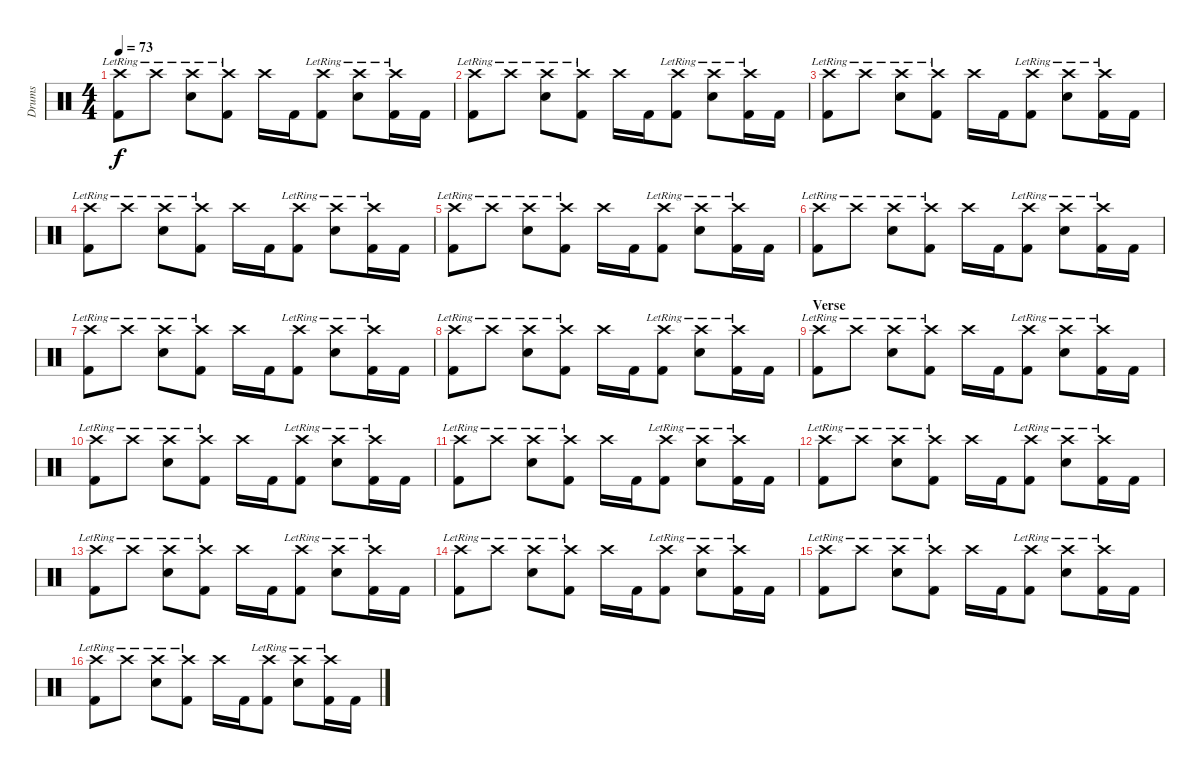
\track ("Drums" "Drums") {instrument percussion}
\staff {score}
\articulation defaults
\ts (4 4)
\tempo 73
\clef neutral
\ks c
("Crash high (hit)"{lr} "Kick (hit) 2").8{dy f} "Crash high (hit)"{lr}.8 ("Crash high (hit)"{lr} "Snare (hit) 2").8 ("Crash high (hit)"{lr} "Kick (hit) 2").8 "Crash high (hit)".16 "Kick (hit) 2".16 ("Crash high (hit)"{lr} "Kick (hit) 2").8 ("Crash high (hit)"{lr} "Snare (hit) 2").8 ("Crash high (hit)"{lr} "Kick (hit) 2").16 "Kick (hit) 2".16 |
("Crash high (hit)"{lr} "Kick (hit) 2").8 "Crash high (hit)"{lr}.8 ("Crash high (hit)"{lr} "Snare (hit) 2").8 ("Crash high (hit)"{lr} "Kick (hit) 2").8 "Crash high (hit)".16 "Kick (hit) 2".16 ("Crash high (hit)"{lr} "Kick (hit) 2").8 ("Crash high (hit)"{lr} "Snare (hit) 2").8 ("Crash high (hit)"{lr} "Kick (hit) 2").16 "Kick (hit) 2".16 |
("Crash high (hit)"{lr} "Kick (hit) 2").8 "Crash high (hit)"{lr}.8 ("Crash high (hit)"{lr} "Snare (hit) 2").8 ("Crash high (hit)"{lr} "Kick (hit) 2").8 "Crash high (hit)".16 "Kick (hit) 2".16 ("Crash high (hit)"{lr} "Kick (hit) 2").8 ("Crash high (hit)"{lr} "Snare (hit) 2").8 ("Crash high (hit)"{lr} "Kick (hit) 2").16 "Kick (hit) 2".16 |
("Crash high (hit)"{lr} "Kick (hit) 2").8 "Crash high (hit)"{lr}.8 ("Crash high (hit)"{lr} "Snare (hit) 2").8 ("Crash high (hit)"{lr} "Kick (hit) 2").8 "Crash high (hit)".16 "Kick (hit) 2".16 ("Crash high (hit)"{lr} "Kick (hit) 2").8 ("Crash high (hit)"{lr} "Snare (hit) 2").8 ("Crash high (hit)"{lr} "Kick (hit) 2").16 "Kick (hit) 2".16 |
("Crash high (hit)"{lr} "Kick (hit) 2").8 "Crash high (hit)"{lr}.8 ("Crash high (hit)"{lr} "Snare (hit) 2").8 ("Crash high (hit)"{lr} "Kick (hit) 2").8 "Crash high (hit)".16 "Kick (hit) 2".16 ("Crash high (hit)"{lr} "Kick (hit) 2").8 ("Crash high (hit)"{lr} "Snare (hit) 2").8 ("Crash high (hit)"{lr} "Kick (hit) 2").16 "Kick (hit) 2".16 |
("Crash high (hit)"{lr} "Kick (hit) 2").8 "Crash high (hit)"{lr}.8 ("Crash high (hit)"{lr} "Snare (hit) 2").8 ("Crash high (hit)"{lr} "Kick (hit) 2").8 "Crash high (hit)".16 "Kick (hit) 2".16 ("Crash high (hit)"{lr} "Kick (hit) 2").8 ("Crash high (hit)"{lr} "Snare (hit) 2").8 ("Crash high (hit)"{lr} "Kick (hit) 2").16 "Kick (hit) 2".16 |
("Crash high (hit)"{lr} "Kick (hit) 2").8 "Crash high (hit)"{lr}.8 ("Crash high (hit)"{lr} "Snare (hit) 2").8 ("Crash high (hit)"{lr} "Kick (hit) 2").8 "Crash high (hit)".16 "Kick (hit) 2".16 ("Crash high (hit)"{lr} "Kick (hit) 2").8 ("Crash high (hit)"{lr} "Snare (hit) 2").8 ("Crash high (hit)"{lr} "Kick (hit) 2").16 "Kick (hit) 2".16 |
("Crash high (hit)"{lr} "Kick (hit) 2").8 "Crash high (hit)"{lr}.8 ("Crash high (hit)"{lr} "Snare (hit) 2").8 ("Crash high (hit)"{lr} "Kick (hit) 2").8 "Crash high (hit)".16 "Kick (hit) 2".16 ("Crash high (hit)"{lr} "Kick (hit) 2").8 ("Crash high (hit)"{lr} "Snare (hit) 2").8 ("Crash high (hit)"{lr} "Kick (hit) 2").16 "Kick (hit) 2".16 |
\section ("" "Verse")
("Crash high (hit)"{lr} "Kick (hit) 2").8 "Crash high (hit)"{lr}.8 ("Crash high (hit)"{lr} "Snare (hit) 2").8 ("Crash high (hit)"{lr} "Kick (hit) 2").8 "Crash high (hit)".16 "Kick (hit) 2".16 ("Crash high (hit)"{lr} "Kick (hit) 2").8 ("Crash high (hit)"{lr} "Snare (hit) 2").8 ("Crash high (hit)"{lr} "Kick (hit) 2").16 "Kick (hit) 2".16 |
("Crash high (hit)"{lr} "Kick (hit) 2").8 "Crash high (hit)"{lr}.8 ("Crash high (hit)"{lr} "Snare (hit) 2").8 ("Crash high (hit)"{lr} "Kick (hit) 2").8 "Crash high (hit)".16 "Kick (hit) 2".16 ("Crash high (hit)"{lr} "Kick (hit) 2").8 ("Crash high (hit)"{lr} "Snare (hit) 2").8 ("Crash high (hit)"{lr} "Kick (hit) 2").16 "Kick (hit) 2".16 |
("Crash high (hit)"{lr} "Kick (hit) 2").8 "Crash high (hit)"{lr}.8 ("Crash high (hit)"{lr} "Snare (hit) 2").8 ("Crash high (hit)"{lr} "Kick (hit) 2").8 "Crash high (hit)".16 "Kick (hit) 2".16 ("Crash high (hit)"{lr} "Kick (hit) 2").8 ("Crash high (hit)"{lr} "Snare (hit) 2").8 ("Crash high (hit)"{lr} "Kick (hit) 2").16 "Kick (hit) 2".16 |
("Crash high (hit)"{lr} "Kick (hit) 2").8 "Crash high (hit)"{lr}.8 ("Crash high (hit)"{lr} "Snare (hit) 2").8 ("Crash high (hit)"{lr} "Kick (hit) 2").8 "Crash high (hit)".16 "Kick (hit) 2".16 ("Crash high (hit)"{lr} "Kick (hit) 2").8 ("Crash high (hit)"{lr} "Snare (hit) 2").8 ("Crash high (hit)"{lr} "Kick (hit) 2").16 "Kick (hit) 2".16 |
("Crash high (hit)"{lr} "Kick (hit) 2").8 "Crash high (hit)"{lr}.8 ("Crash high (hit)"{lr} "Snare (hit) 2").8 ("Crash high (hit)"{lr} "Kick (hit) 2").8 "Crash high (hit)".16 "Kick (hit) 2".16 ("Crash high (hit)"{lr} "Kick (hit) 2").8 ("Crash high (hit)"{lr} "Snare (hit) 2").8 ("Crash high (hit)"{lr} "Kick (hit) 2").16 "Kick (hit) 2".16 |
("Crash high (hit)"{lr} "Kick (hit) 2").8 "Crash high (hit)"{lr}.8 ("Crash high (hit)"{lr} "Snare (hit) 2").8 ("Crash high (hit)"{lr} "Kick (hit) 2").8 "Crash high (hit)".16 "Kick (hit) 2".16 ("Crash high (hit)"{lr} "Kick (hit) 2").8 ("Crash high (hit)"{lr} "Snare (hit) 2").8 ("Crash high (hit)"{lr} "Kick (hit) 2").16 "Kick (hit) 2".16 |
("Crash high (hit)"{lr} "Kick (hit) 2").8 "Crash high (hit)"{lr}.8 ("Crash high (hit)"{lr} "Snare (hit) 2").8 ("Crash high (hit)"{lr} "Kick (hit) 2").8 "Crash high (hit)".16 "Kick (hit) 2".16 ("Crash high (hit)"{lr} "Kick (hit) 2").8 ("Crash high (hit)"{lr} "Snare (hit) 2").8 ("Crash high (hit)"{lr} "Kick (hit) 2").16 "Kick (hit) 2".16 |
("Crash high (hit)"{lr} "Kick (hit) 2").8 "Crash high (hit)"{lr}.8 ("Crash high (hit)"{lr} "Snare (hit) 2").8 ("Crash high (hit)"{lr} "Kick (hit) 2").8 "Crash high (hit)".16 "Kick (hit) 2".16 ("Crash high (hit)"{lr} "Kick (hit) 2").8 ("Crash high (hit)"{lr} "Snare (hit) 2").8 ("Crash high (hit)"{lr} "Kick (hit) 2").16 "Kick (hit) 2".16
